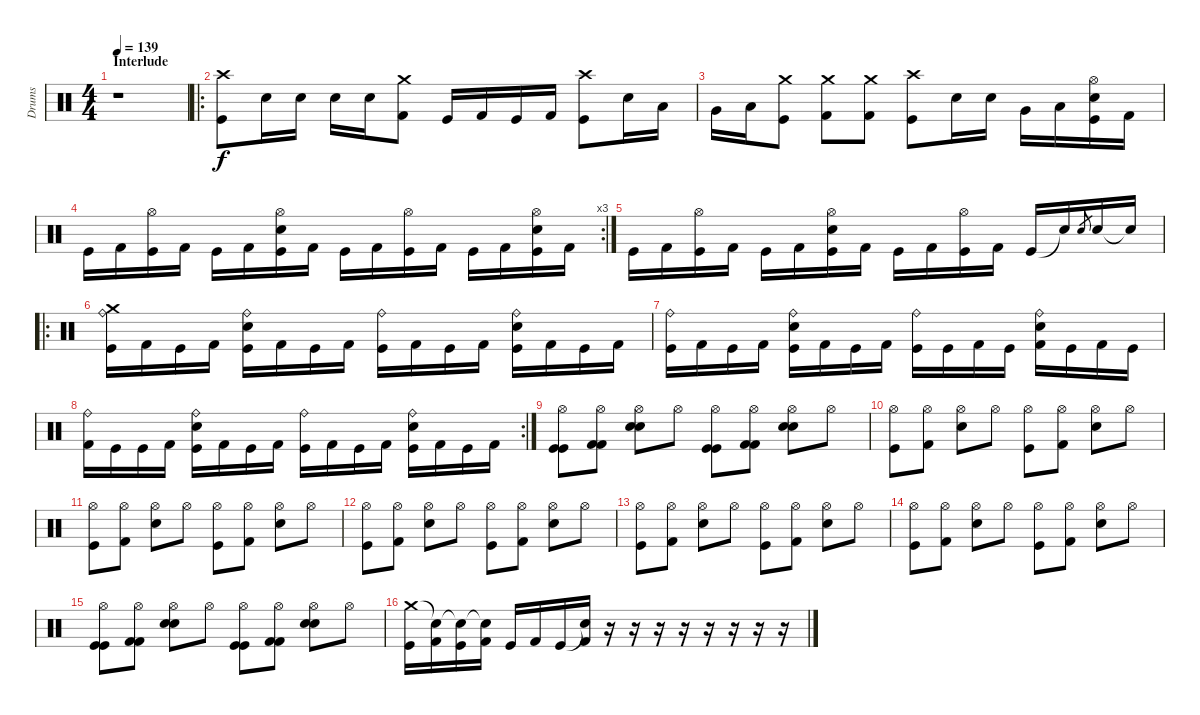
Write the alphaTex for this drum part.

\track ("Drums" "Drums") {instrument percussion}
\staff {score}
\articulation defaults
\ts (4 4)
\section ("" "Interlude")
\tempo 139
\clef neutral
\ks c
r.1{dy f} |
\ro
("Crash high (hit)" "Kick (hit)").8 "Electric Snare (hit)".16 "Electric Snare (hit)".16 "Electric Snare (hit)".16 "Electric Snare (hit)".16 ("Crash medium (hit)" "Kick (hit) 2").8 "Kick (hit)".16 "Kick (hit) 2".16 "Kick (hit)".16 "Kick (hit) 2".16 ("Crash high (hit)" "Kick (hit)").8 "Electric Snare (hit)".16 "Low Tom (hit)".16 |
"Very Low Tom (hit)".16 "Low Floor Tom (hit)".16 ("Crash medium (hit)" "Kick (hit)").8 ("Crash medium (hit)" "Kick (hit) 2").8 ("Crash medium (hit)" "Kick (hit) 2").8 ("Crash high (hit)" "Kick (hit)").8 "Electric Snare (hit)".16 "Electric Snare (hit)".16 "Very Low Tom (hit)".16 "Low Floor Tom (hit)".16 ("Hi-Hat (open)" "Electric Snare (hit)" "Kick (hit)").16 "Kick (hit) 2".16 |
\rc 3 "Kick (hit)".16 "Kick (hit) 2".16
("Hi-Hat (open)" "Kick (hit)").16 "Kick (hit) 2".16 "Kick (hit)".16 "Kick (hit) 2".16 ("Hi-Hat (open)" "Electric Snare (hit)" "Kick (hit)").16 "Kick (hit) 2".16 "Kick (hit)".16 "Kick (hit) 2".16 ("Hi-Hat (open)" "Kick (hit)").16 "Kick (hit) 2".16 "Kick (hit)".16 "Kick (hit) 2".16 ("Hi-Hat (open)" "Electric Snare (hit)" "Kick (hit)").16 "Kick (hit) 2".16 |
"Kick (hit)".16 "Kick (hit) 2".16 ("Hi-Hat (open)" "Kick (hit)").16 "Kick (hit) 2".16 "Kick (hit)".16 "Kick (hit) 2".16 ("Electric Snare (hit)" "Hi-Hat (open)" "Kick (hit)").16 "Kick (hit) 2".16 "Kick (hit)".16 "Kick (hit) 2".16 ("Hi-Hat (open)" "Kick (hit)").16 "Kick (hit) 2".16 "Kick (hit)".16 "Snare (hit)"{t}.16 "Electric Snare (hit)".8{gr} "Electric Snare (hit)".16 "Snare (hit)"{t}.16 |
\ro
("Ride (bell)" "Crash medium (hit)" "Kick (hit)").16 "Kick (hit) 2".16 "Kick (hit)".16 "Kick (hit) 2".16 ("Ride (bell)" "Electric Snare (hit)" "Kick (hit)").16 "Kick (hit) 2".16 "Kick (hit)".16 "Kick (hit) 2".16 ("Ride (bell)" "Kick (hit)").16 "Kick (hit) 2".16 "Kick (hit)".16 "Kick (hit) 2".16 ("Ride (bell)" "Electric Snare (hit)" "Kick (hit)").16 "Kick (hit) 2".16 "Kick (hit)".16 "Kick (hit) 2".16 |
("Ride (bell)" "Kick (hit)").16 "Kick (hit) 2".16 "Kick (hit)".16 "Kick (hit) 2".16 ("Ride (bell)" "Electric Snare (hit)" "Kick (hit)").16 "Kick (hit) 2".16 "Kick (hit)".16 "Kick (hit) 2".16 ("Ride (bell)" "Kick (hit)").16 "Kick (hit)".16 "Kick (hit) 2".16 "Kick (hit)".16 ("Ride (bell)" "Electric Snare (hit)" "Kick (hit) 2").16 "Kick (hit)".16 "Kick (hit) 2".16 "Kick (hit)".16 |
\rc 2
("Ride (bell)" "Kick (hit) 2").16 "Kick (hit)".16 "Kick (hit)".16 "Kick (hit) 2".16 ("Ride (bell)" "Electric Snare (hit)" "Kick (hit)").16 "Kick (hit) 2".16 "Kick (hit)".16 "Kick (hit) 2".16 ("Ride (bell)" "Kick (hit)").16 "Kick (hit) 2".16 "Kick (hit)".16 "Kick (hit) 2".16 ("Ride (bell)" "Electric Snare (hit)" "Kick (hit)").16 "Kick (hit) 2".16 "Kick (hit)".16 "Kick (hit) 2".16 |
("Hi-Hat (open)" "Kick (hit)" "Kick (hit)").8 ("Hi-Hat (open)" "Kick (hit) 2" "Kick (hit) 2").8 ("Hi-Hat (open)" "Electric Snare (hit)" "Electric Snare (hit)").8 "Hi-Hat (open)".8 ("Hi-Hat (open)" "Kick (hit)" "Kick (hit)").8 ("Hi-Hat (open)" "Kick (hit) 2" "Kick (hit) 2").8 ("Hi-Hat (open)" "Electric Snare (hit)" "Electric Snare (hit)").8 "Hi-Hat (open)".8 |
("Hi-Hat (open)" "Kick (hit)").8 ("Hi-Hat (open)" "Kick (hit) 2").8 ("Hi-Hat (open)" "Electric Snare (hit)").8 "Hi-Hat (open)".8 ("Hi-Hat (open)" "Kick (hit)").8 ("Hi-Hat (open)" "Kick (hit) 2").8 ("Hi-Hat (open)" "Electric Snare (hit)").8 "Hi-Hat (open)".8 |
("Hi-Hat (open)" "Kick (hit)").8 ("Hi-Hat (open)" "Kick (hit) 2").8 ("Hi-Hat (open)" "Electric Snare (hit)").8 "Hi-Hat (open)".8 ("Hi-Hat (open)" "Kick (hit)").8 ("Hi-Hat (open)" "Kick (hit) 2").8 ("Hi-Hat (open)" "Electric Snare (hit)").8 "Hi-Hat (open)".8 |
("Hi-Hat (open)" "Kick (hit)").8 ("Hi-Hat (open)" "Kick (hit) 2").8 ("Hi-Hat (open)" "Electric Snare (hit)").8 "Hi-Hat (open)".8 ("Hi-Hat (open)" "Kick (hit)").8 ("Hi-Hat (open)" "Kick (hit) 2").8 ("Hi-Hat (open)" "Electric Snare (hit)").8 "Hi-Hat (open)".8 |
("Hi-Hat (open)" "Kick (hit)").8 ("Hi-Hat (open)" "Kick (hit) 2").8 ("Hi-Hat (open)" "Electric Snare (hit)").8 "Hi-Hat (open)".8 ("Hi-Hat (open)" "Kick (hit)").8 ("Hi-Hat (open)" "Kick (hit) 2").8 ("Hi-Hat (open)" "Electric Snare (hit)").8 "Hi-Hat (open)".8 |
("Hi-Hat (open)" "Kick (hit)").8 ("Hi-Hat (open)" "Kick (hit) 2").8 ("Hi-Hat (open)" "Electric Snare (hit)").8 "Hi-Hat (open)".8 ("Hi-Hat (open)" "Kick (hit)").8 ("Hi-Hat (open)" "Kick (hit) 2").8 ("Hi-Hat (open)" "Electric Snare (hit)").8 "Hi-Hat (open)".8 |
("Hi-Hat (open)" "Kick (hit)" "Kick (hit)").8 ("Hi-Hat (open)" "Kick (hit) 2" "Kick (hit) 2").8 ("Hi-Hat (open)" "Electric Snare (hit)" "Electric Snare (hit)").8 "Hi-Hat (open)".8 ("Hi-Hat (open)" "Kick (hit)" "Kick (hit)").8 ("Hi-Hat (open)" "Kick (hit) 2" "Kick (hit) 2").8 ("Hi-Hat (open)" "Electric Snare (hit)" "Electric Snare (hit)").8 "Hi-Hat (open)".8 |
("Crash medium (hit)" "Kick (hit)").16 ("Snare (hit)"{t} "Kick (hit) 2").16 ("Snare (hit)"{t} "Kick (hit)").16 ("Snare (hit)"{t} "Kick (hit) 2").16 "Kick (hit)".16 "Kick (hit) 2".16 "Kick (hit)".16 ("Snare (hit)"{t} "Kick (hit) 2").16 r.16 r.16 r.16 r.16 r.16 r.16 r.16 r.16
